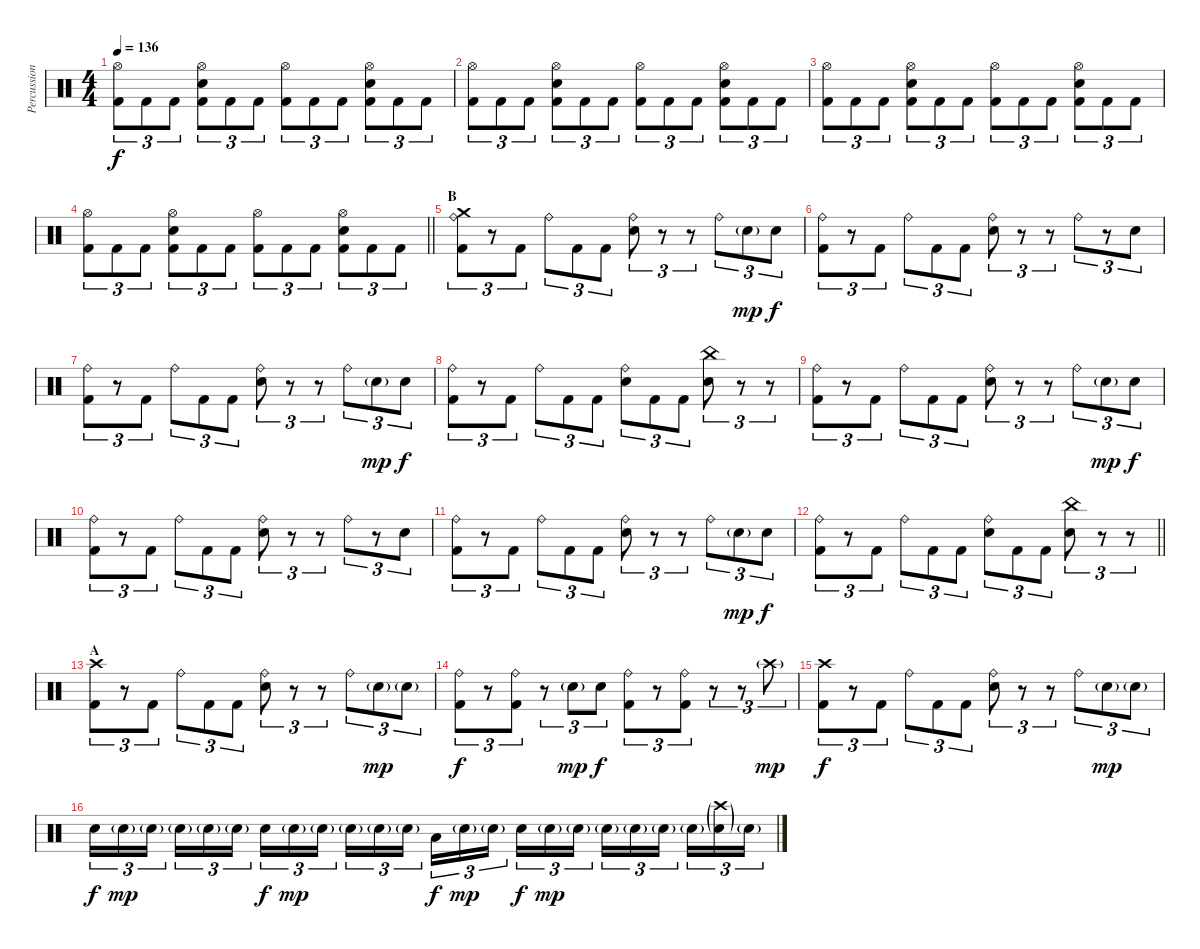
\track ("Percussion" "Percussion") {instrument percussion}
\staff {score}
\articulation defaults
\ts (4 4)
\tempo 136
\clef neutral
\ks c
("Hi-Hat (open)" "Kick (hit) 2").8{tu (3 2) dy f} "Kick (hit) 2".8{tu (3 2)} "Kick (hit) 2".8{tu (3 2)} ("Hi-Hat (open)" "Electric Snare (hit)" "Kick (hit) 2").8{tu (3 2)} "Kick (hit) 2".8{tu (3 2)} "Kick (hit) 2".8{tu (3 2)} ("Hi-Hat (open)" "Kick (hit) 2").8{tu (3 2)} "Kick (hit) 2".8{tu (3 2)} "Kick (hit) 2".8{tu (3 2)} ("Hi-Hat (open)" "Electric Snare (hit)" "Kick (hit) 2").8{tu (3 2)} "Kick (hit) 2".8{tu (3 2)} "Kick (hit) 2".8{tu (3 2)} |
("Hi-Hat (open)" "Kick (hit) 2").8{tu (3 2)} "Kick (hit) 2".8{tu (3 2)} "Kick (hit) 2".8{tu (3 2)} ("Hi-Hat (open)" "Electric Snare (hit)" "Kick (hit) 2").8{tu (3 2)} "Kick (hit) 2".8{tu (3 2)} "Kick (hit) 2".8{tu (3 2)} ("Hi-Hat (open)" "Kick (hit) 2").8{tu (3 2)} "Kick (hit) 2".8{tu (3 2)} "Kick (hit) 2".8{tu (3 2)} ("Hi-Hat (open)" "Electric Snare (hit)" "Kick (hit) 2").8{tu (3 2)} "Kick (hit) 2".8{tu (3 2)} "Kick (hit) 2".8{tu (3 2)} |
("Hi-Hat (open)" "Kick (hit) 2").8{tu (3 2)} "Kick (hit) 2".8{tu (3 2)} "Kick (hit) 2".8{tu (3 2)} ("Hi-Hat (open)" "Electric Snare (hit)" "Kick (hit) 2").8{tu (3 2)} "Kick (hit) 2".8{tu (3 2)} "Kick (hit) 2".8{tu (3 2)} ("Hi-Hat (open)" "Kick (hit) 2").8{tu (3 2)} "Kick (hit) 2".8{tu (3 2)} "Kick (hit) 2".8{tu (3 2)} ("Hi-Hat (open)" "Electric Snare (hit)" "Kick (hit) 2").8{tu (3 2)} "Kick (hit) 2".8{tu (3 2)} "Kick (hit) 2".8{tu (3 2)} |
\barLineRight lightlight
("Hi-Hat (open)" "Kick (hit) 2").8{tu (3 2)} "Kick (hit) 2".8{tu (3 2)} "Kick (hit) 2".8{tu (3 2)} ("Hi-Hat (open)" "Electric Snare (hit)" "Kick (hit) 2").8{tu (3 2)} "Kick (hit) 2".8{tu (3 2)} "Kick (hit) 2".8{tu (3 2)} ("Hi-Hat (open)" "Kick (hit) 2").8{tu (3 2)} "Kick (hit) 2".8{tu (3 2)} "Kick (hit) 2".8{tu (3 2)} ("Hi-Hat (open)" "Electric Snare (hit)" "Kick (hit) 2").8{tu (3 2)} "Kick (hit) 2".8{tu (3 2)} "Kick (hit) 2".8{tu (3 2)} |
\section ("" "B")
("Crash medium (hit)" "Ride (bell)" "Kick (hit) 2").8{tu (3 2)} r.8{tu (3 2)} "Kick (hit) 2".8{tu (3 2)} "Ride (bell)".8{tu (3 2)} "Kick (hit) 2".8{tu (3 2)} "Kick (hit) 2".8{tu (3 2)} ("Ride (bell)" "Electric Snare (hit)").8{tu (3 2)} r.8{tu (3 2)} r.8{tu (3 2)} "Ride (bell)".8{tu (3 2)} "Electric Snare (hit)"{g}.8{tu (3 2) dy mp} "Electric Snare (hit)".8{tu (3 2) dy f} |
("Ride (bell)" "Kick (hit) 2").8{tu (3 2)} r.8{tu (3 2)} "Kick (hit) 2".8{tu (3 2)} "Ride (bell)".8{tu (3 2)} "Kick (hit) 2".8{tu (3 2)} "Kick (hit) 2".8{tu (3 2)} ("Ride (bell)" "Electric Snare (hit)").8{tu (3 2)} r.8{tu (3 2)} r.8{tu (3 2)} "Ride (bell)".8{tu (3 2)} r.8{tu (3 2)} "Electric Snare (hit)".8{tu (3 2)} |
("Ride (bell)" "Kick (hit) 2").8{tu (3 2)} r.8{tu (3 2)} "Kick (hit) 2".8{tu (3 2)} "Ride (bell)".8{tu (3 2)} "Kick (hit) 2".8{tu (3 2)} "Kick (hit) 2".8{tu (3 2)} ("Ride (bell)" "Electric Snare (hit)").8{tu (3 2)} r.8{tu (3 2)} r.8{tu (3 2)} "Ride (bell)".8{tu (3 2)} "Electric Snare (hit)"{g}.8{tu (3 2) dy mp} "Electric Snare (hit)".8{tu (3 2) dy f} |
("Ride (bell)" "Kick (hit) 2").8{tu (3 2)} r.8{tu (3 2)} "Kick (hit) 2".8{tu (3 2)} "Ride (bell)".8{tu (3 2)} "Kick (hit) 2".8{tu (3 2)} "Kick (hit) 2".8{tu (3 2)} ("Ride (bell)" "Electric Snare (hit)").8{tu (3 2)} "Kick (hit) 2".8{tu (3 2)} "Kick (hit) 2".8{tu (3 2)} ("China (hit)" "Electric Snare (hit)").8{tu (3 2)} r.8{tu (3 2)} r.8{tu (3 2)} |
("Ride (bell)" "Kick (hit) 2").8{tu (3 2)} r.8{tu (3 2)} "Kick (hit) 2".8{tu (3 2)} "Ride (bell)".8{tu (3 2)} "Kick (hit) 2".8{tu (3 2)} "Kick (hit) 2".8{tu (3 2)} ("Ride (bell)" "Electric Snare (hit)").8{tu (3 2)} r.8{tu (3 2)} r.8{tu (3 2)} "Ride (bell)".8{tu (3 2)} "Electric Snare (hit)"{g}.8{tu (3 2) dy mp} "Electric Snare (hit)".8{tu (3 2) dy f} |
("Ride (bell)" "Kick (hit) 2").8{tu (3 2)} r.8{tu (3 2)} "Kick (hit) 2".8{tu (3 2)} "Ride (bell)".8{tu (3 2)} "Kick (hit) 2".8{tu (3 2)} "Kick (hit) 2".8{tu (3 2)} ("Ride (bell)" "Electric Snare (hit)").8{tu (3 2)} r.8{tu (3 2)} r.8{tu (3 2)} "Ride (bell)".8{tu (3 2)} r.8{tu (3 2)} "Electric Snare (hit)".8{tu (3 2)} |
("Ride (bell)" "Kick (hit) 2").8{tu (3 2)} r.8{tu (3 2)} "Kick (hit) 2".8{tu (3 2)} "Ride (bell)".8{tu (3 2)} "Kick (hit) 2".8{tu (3 2)} "Kick (hit) 2".8{tu (3 2)} ("Ride (bell)" "Electric Snare (hit)").8{tu (3 2)} r.8{tu (3 2)} r.8{tu (3 2)} "Ride (bell)".8{tu (3 2)} "Electric Snare (hit)"{g}.8{tu (3 2) dy mp} "Electric Snare (hit)".8{tu (3 2) dy f} |
\barLineRight lightlight
("Ride (bell)" "Kick (hit) 2").8{tu (3 2)} r.8{tu (3 2)} "Kick (hit) 2".8{tu (3 2)} "Ride (bell)".8{tu (3 2)} "Kick (hit) 2".8{tu (3 2)} "Kick (hit) 2".8{tu (3 2)} ("Ride (bell)" "Electric Snare (hit)").8{tu (3 2)} "Kick (hit) 2".8{tu (3 2)} "Kick (hit) 2".8{tu (3 2)} ("China (hit)" "Electric Snare (hit)").8{tu (3 2)} r.8{tu (3 2)} r.8{tu (3 2)} |
\section ("" "A")
("Crash high (hit)" "Kick (hit) 2").8{tu (3 2)} r.8{tu (3 2)} "Kick (hit) 2".8{tu (3 2)} "Ride (bell)".8{tu (3 2)} "Kick (hit) 2".8{tu (3 2)} "Kick (hit) 2".8{tu (3 2)} ("Ride (bell)" "Electric Snare (hit)").8{tu (3 2)} r.8{tu (3 2)} r.8{tu (3 2)} "Ride (bell)".8{tu (3 2)} "Electric Snare (hit)"{g}.8{tu (3 2) dy mp} "Electric Snare (hit)"{g}.8{tu (3 2)} |
("Ride (bell)" "Kick (hit) 2").8{tu (3 2) dy f} r.8{tu (3 2)} ("Ride (bell)" "Kick (hit) 2").8{tu (3 2)} r.8{tu (3 2)} "Electric Snare (hit)"{g}.8{tu (3 2) dy mp} "Electric Snare (hit)".8{tu (3 2) dy f} ("Ride (bell)" "Kick (hit) 2").8{tu (3 2)} r.8{tu (3 2)} ("Ride (bell)" "Kick (hit) 2").8{tu (3 2)} r.8{tu (3 2)} r.8{tu (3 2)} "Crash high (hit)"{g}.8{tu (3 2) dy mp} |
("Crash high (hit)" "Kick (hit) 2").8{tu (3 2) dy f} r.8{tu (3 2)} "Kick (hit) 2".8{tu (3 2)} "Ride (bell)".8{tu (3 2)} "Kick (hit) 2".8{tu (3 2)} "Kick (hit) 2".8{tu (3 2)} ("Ride (bell)" "Electric Snare (hit)").8{tu (3 2)} r.8{tu (3 2)} r.8{tu (3 2)} "Ride (bell)".8{tu (3 2)} "Electric Snare (hit)"{g}.8{tu (3 2) dy mp} "Electric Snare (hit)"{g}.8{tu (3 2)} |
"Electric Snare (hit)".16{tu (3 2) dy f} "Electric Snare (hit)"{g}.16{tu (3 2) dy mp} "Electric Snare (hit)"{g}.16{tu (3 2) beam splitsecondary} "Electric Snare (hit)"{g}.16{tu (3 2)} "Electric Snare (hit)"{g}.16{tu (3 2)} "Electric Snare (hit)"{g}.16{tu (3 2)} "Electric Snare (hit)".16{tu (3 2) dy f} "Electric Snare (hit)"{g}.16{tu (3 2) dy mp} "Electric Snare (hit)"{g}.16{tu (3 2) beam splitsecondary} "Electric Snare (hit)"{g}.16{tu (3 2)} "Electric Snare (hit)"{g}.16{tu (3 2)} "Electric Snare (hit)"{g}.16{tu (3 2)} "Low Tom (hit)".16{tu (3 2) dy f} "Electric Snare (hit)"{g}.16{tu (3 2) dy mp} "Electric Snare (hit)"{g}.16{tu (3 2) beam splitsecondary} "Electric Snare (hit)".16{tu (3 2) dy f} "Electric Snare (hit)"{g}.16{tu (3 2) dy mp} "Electric Snare (hit)"{g}.16{tu (3 2)} "Electric Snare (hit)"{g}.16{tu (3 2)} "Electric Snare (hit)"{g}.16{tu (3 2)} "Electric Snare (hit)"{g}.16{tu (3 2) beam splitsecondary} "Electric Snare (hit)"{g}.16{tu (3 2)} ("Crash high (hit)"{g} "Electric Snare (hit)"{g}).16{tu (3 2)} "Electric Snare (hit)"{g}.16{tu (3 2)}
